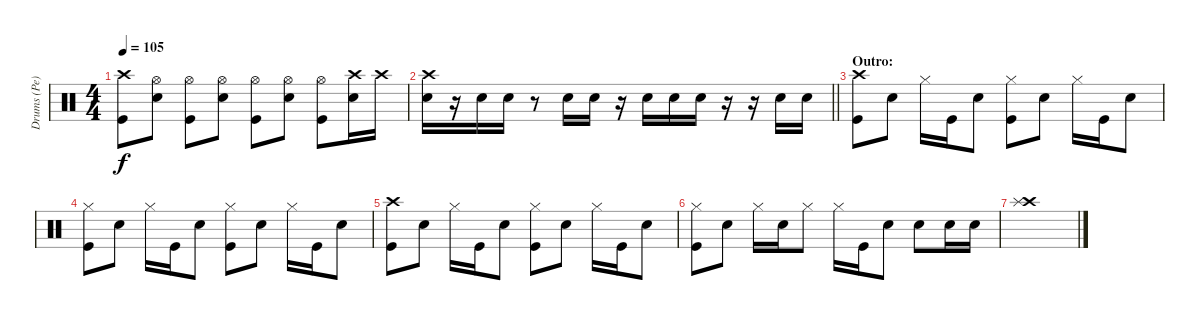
\track ("Drums (Pe)" "Drums (Pe)") {instrument percussion}
\staff {score}
\articulation defaults
\ts (4 4)
\tempo 105
\clef neutral
\ks c
("Crash high (hit)" "Kick (hit)").8{dy f} ("Hi-Hat (open)" "Snare (hit) 2").8 ("Hi-Hat (open)" "Kick (hit)").8 ("Hi-Hat (open)" "Snare (hit) 2").8 ("Hi-Hat (open)" "Kick (hit)").8 ("Hi-Hat (open)" "Snare (hit) 2").8 ("Hi-Hat (open)" "Kick (hit)").8 ("Crash high (hit)" "Snare (hit) 2").16 "Crash high (hit)".16 |
\barLineRight lightlight
("Crash high (hit)" "Snare (hit) 2").16 r.16 "Snare (hit) 2".16 "Snare (hit) 2".16 r.8 "Snare (hit) 2".16 "Snare (hit) 2".16 r.16 "Snare (hit) 2".16 "Snare (hit) 2".16 "Snare (hit) 2".16 r.16 r.16 "Snare (hit) 2".16 "Snare (hit) 2".16 |
\section ("" "Outro:")
("Crash high (hit)" "Kick (hit)").8 "Snare (hit) 2".8 "Hi-Hat (closed)".16 "Kick (hit)".16 "Snare (hit) 2".8 ("Hi-Hat (closed)" "Kick (hit)").8 "Snare (hit) 2".8 "Hi-Hat (closed)".16 "Kick (hit)".16 "Snare (hit) 2".8 |
("Hi-Hat (closed)" "Kick (hit)").8 "Snare (hit) 2".8 "Hi-Hat (closed)".16 "Kick (hit)".16 "Snare (hit) 2".8 ("Hi-Hat (closed)" "Kick (hit)").8 "Snare (hit) 2".8 "Hi-Hat (closed)".16 "Kick (hit)".16 "Snare (hit) 2".8 |
("Crash high (hit)" "Kick (hit)").8 "Snare (hit) 2".8 "Hi-Hat (closed)".16 "Kick (hit)".16 "Snare (hit) 2".8 ("Hi-Hat (closed)" "Kick (hit)").8 "Snare (hit) 2".8 "Hi-Hat (closed)".16 "Kick (hit)".16 "Snare (hit) 2".8 |
("Hi-Hat (closed)" "Kick (hit)").8 "Snare (hit) 2".8 "Hi-Hat (closed)".16 "Snare (hit) 2".16 "Hi-Hat (closed)".8 "Hi-Hat (closed)".16 "Kick (hit)".16 "Snare (hit) 2".8 "Snare (hit) 2".8 "Snare (hit) 2".16 "Snare (hit) 2".16 |
("Crash high (hit)" "Splash (hit)").1
